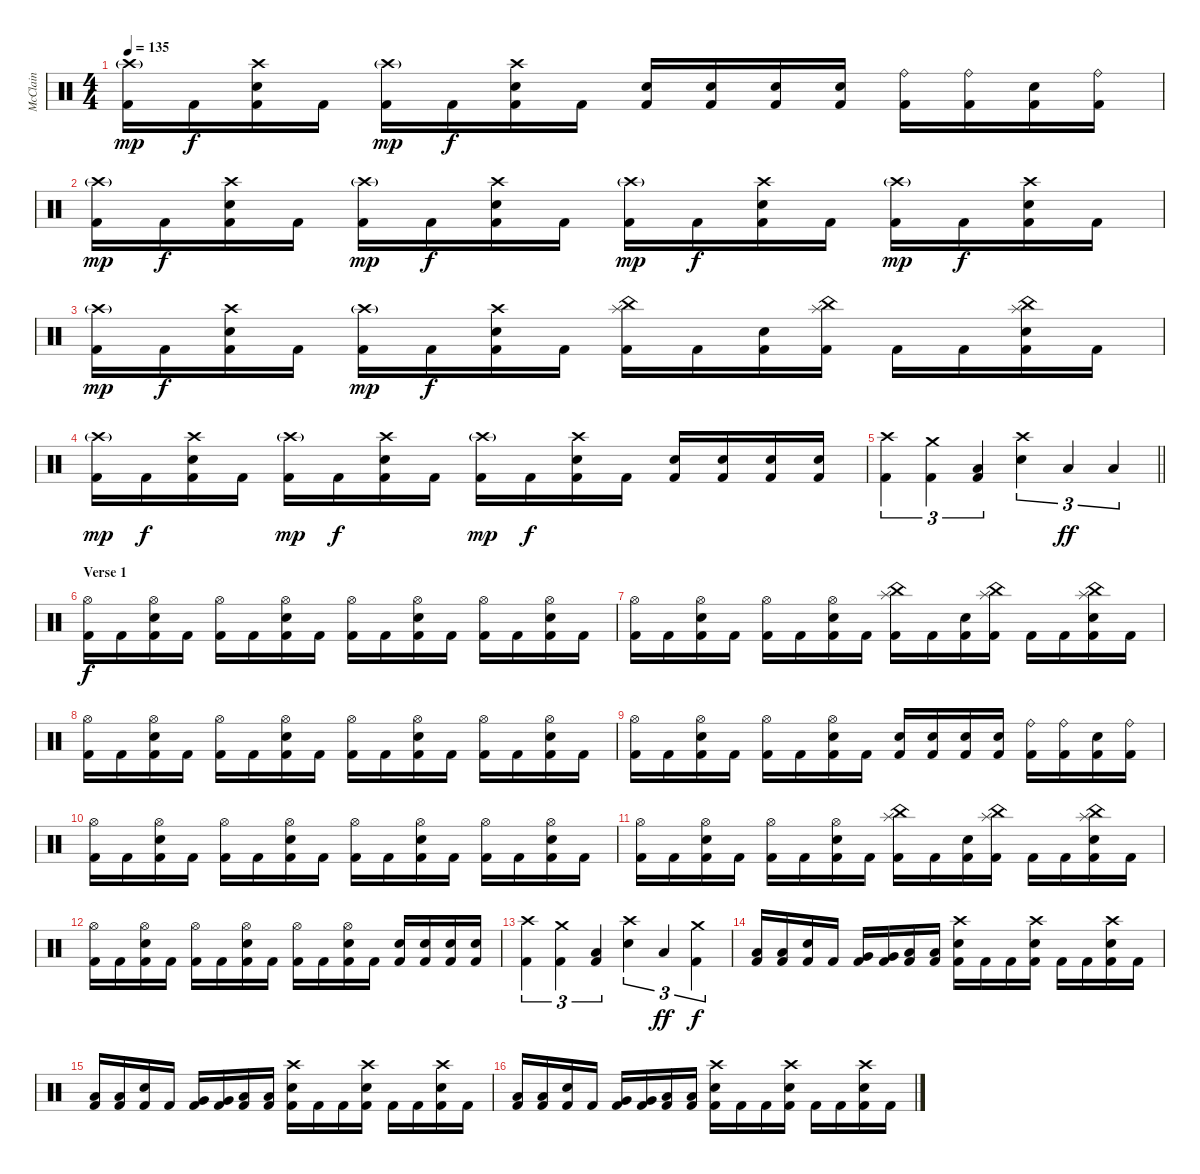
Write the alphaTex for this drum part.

\track ("McClain" "McClain") {instrument percussion}
\staff {score}
\articulation defaults
\ts (4 4)
\tempo 135
\clef neutral
\ks c
("Crash high (hit)"{g} "Kick (hit) 2").16{dy mp} "Kick (hit) 2".16{dy f} ("Crash high (hit)" "Electric Snare (hit)" "Kick (hit) 2").16 "Kick (hit) 2".16 ("Crash high (hit)"{g} "Kick (hit) 2").16{dy mp} "Kick (hit) 2".16{dy f} ("Crash high (hit)" "Electric Snare (hit)" "Kick (hit) 2").16 "Kick (hit) 2".16 ("Electric Snare (hit)" "Kick (hit) 2").16 ("Electric Snare (hit)" "Kick (hit) 2").16 ("Electric Snare (hit)" "Kick (hit) 2").16 ("Electric Snare (hit)" "Kick (hit) 2").16 ("Ride (bell)" "Kick (hit) 2").16 ("Ride (bell)" "Kick (hit) 2").16 ("Electric Snare (hit)" "Kick (hit) 2").16 ("Ride (bell)" "Kick (hit) 2").16 |
("Crash high (hit)"{g} "Kick (hit) 2").16{dy mp} "Kick (hit) 2".16{dy f} ("Crash high (hit)" "Electric Snare (hit)" "Kick (hit) 2").16 "Kick (hit) 2".16 ("Crash high (hit)"{g} "Kick (hit) 2").16{dy mp} "Kick (hit) 2".16{dy f} ("Crash high (hit)" "Electric Snare (hit)" "Kick (hit) 2").16 "Kick (hit) 2".16 ("Crash high (hit)"{g} "Kick (hit) 2").16{dy mp} "Kick (hit) 2".16{dy f} ("Crash high (hit)" "Electric Snare (hit)" "Kick (hit) 2").16 "Kick (hit) 2".16 ("Crash high (hit)"{g} "Kick (hit) 2").16{dy mp} "Kick (hit) 2".16{dy f} ("Crash high (hit)" "Electric Snare (hit)" "Kick (hit) 2").16 "Kick (hit) 2".16 |
("Crash high (hit)"{g} "Kick (hit) 2").16{dy mp} "Kick (hit) 2".16{dy f} ("Crash high (hit)" "Electric Snare (hit)" "Kick (hit) 2").16 "Kick (hit) 2".16 ("Crash high (hit)"{g} "Kick (hit) 2").16{dy mp} "Kick (hit) 2".16{dy f} ("Crash high (hit)" "Electric Snare (hit)" "Kick (hit) 2").16 "Kick (hit) 2".16 ("China (hit)" "Splash (hit)" "Kick (hit) 2").16 "Kick (hit) 2".16 ("Electric Snare (hit)" "Kick (hit) 2").16 ("China (hit)" "Splash (hit)" "Kick (hit) 2").16 "Kick (hit) 2".16 "Kick (hit) 2".16 ("China (hit)" "Splash (hit)" "Electric Snare (hit)" "Kick (hit) 2").16 "Kick (hit) 2".16 |
("Crash high (hit)"{g} "Kick (hit) 2").16{dy mp} "Kick (hit) 2".16{dy f} ("Crash high (hit)" "Electric Snare (hit)" "Kick (hit) 2").16 "Kick (hit) 2".16 ("Crash high (hit)"{g} "Kick (hit) 2").16{dy mp} "Kick (hit) 2".16{dy f} ("Crash high (hit)" "Electric Snare (hit)" "Kick (hit) 2").16 "Kick (hit) 2".16 ("Crash high (hit)"{g} "Kick (hit) 2").16{dy mp} "Kick (hit) 2".16{dy f} ("Crash high (hit)" "Electric Snare (hit)" "Kick (hit) 2").16 "Kick (hit) 2".16 ("Electric Snare (hit)" "Kick (hit) 2").16 ("Electric Snare (hit)" "Kick (hit) 2").16 ("Electric Snare (hit)" "Kick (hit) 2").16 ("Electric Snare (hit)" "Kick (hit) 2").16 |
\barLineRight lightlight
("Crash high (hit)" "Kick (hit) 2").4{tu (3 2)} ("Crash medium (hit)" "Kick (hit) 2").4{tu (3 2)} ("Low Floor Tom (hit)" "Kick (hit) 2").4{tu (3 2)} ("Crash high (hit)" "Electric Snare (hit)").4{tu (3 2)} "Low Tom (hit)".4{tu (3 2) dy ff} "Low Floor Tom (hit)".4{tu (3 2)} |
\section ("" "Verse 1 ")
("Hi-Hat (open)" "Kick (hit) 2").16{dy f} "Kick (hit) 2".16 ("Hi-Hat (open)" "Electric Snare (hit)" "Kick (hit) 2").16 "Kick (hit) 2".16 ("Hi-Hat (open)" "Kick (hit) 2").16 "Kick (hit) 2".16 ("Hi-Hat (open)" "Electric Snare (hit)" "Kick (hit) 2").16 "Kick (hit) 2".16 ("Hi-Hat (open)" "Kick (hit) 2").16 "Kick (hit) 2".16 ("Hi-Hat (open)" "Electric Snare (hit)" "Kick (hit) 2").16 "Kick (hit) 2".16 ("Hi-Hat (open)" "Kick (hit) 2").16 "Kick (hit) 2".16 ("Hi-Hat (open)" "Electric Snare (hit)" "Kick (hit) 2").16 "Kick (hit) 2".16 |
("Hi-Hat (open)" "Kick (hit) 2").16 "Kick (hit) 2".16 ("Hi-Hat (open)" "Electric Snare (hit)" "Kick (hit) 2").16 "Kick (hit) 2".16 ("Hi-Hat (open)" "Kick (hit) 2").16 "Kick (hit) 2".16 ("Hi-Hat (open)" "Electric Snare (hit)" "Kick (hit) 2").16 "Kick (hit) 2".16 ("China (hit)" "Splash (hit)" "Kick (hit) 2").16 "Kick (hit) 2".16 ("Electric Snare (hit)" "Kick (hit) 2").16 ("China (hit)" "Splash (hit)" "Kick (hit) 2").16 "Kick (hit) 2".16 "Kick (hit) 2".16 ("China (hit)" "Splash (hit)" "Electric Snare (hit)" "Kick (hit) 2").16 "Kick (hit) 2".16 |
("Hi-Hat (open)" "Kick (hit) 2").16 "Kick (hit) 2".16 ("Hi-Hat (open)" "Electric Snare (hit)" "Kick (hit) 2").16 "Kick (hit) 2".16 ("Hi-Hat (open)" "Kick (hit) 2").16 "Kick (hit) 2".16 ("Hi-Hat (open)" "Electric Snare (hit)" "Kick (hit) 2").16 "Kick (hit) 2".16 ("Hi-Hat (open)" "Kick (hit) 2").16 "Kick (hit) 2".16 ("Hi-Hat (open)" "Electric Snare (hit)" "Kick (hit) 2").16 "Kick (hit) 2".16 ("Hi-Hat (open)" "Kick (hit) 2").16 "Kick (hit) 2".16 ("Hi-Hat (open)" "Electric Snare (hit)" "Kick (hit) 2").16 "Kick (hit) 2".16 |
("Hi-Hat (open)" "Kick (hit) 2").16 "Kick (hit) 2".16 ("Hi-Hat (open)" "Electric Snare (hit)" "Kick (hit) 2").16 "Kick (hit) 2".16 ("Hi-Hat (open)" "Kick (hit) 2").16 "Kick (hit) 2".16 ("Hi-Hat (open)" "Electric Snare (hit)" "Kick (hit) 2").16 "Kick (hit) 2".16 ("Electric Snare (hit)" "Kick (hit) 2").16 ("Electric Snare (hit)" "Kick (hit) 2").16 ("Electric Snare (hit)" "Kick (hit) 2").16 ("Electric Snare (hit)" "Kick (hit) 2").16 ("Ride (bell)" "Kick (hit) 2").16 ("Ride (bell)" "Kick (hit) 2").16 ("Electric Snare (hit)" "Kick (hit) 2").16 ("Ride (bell)" "Kick (hit) 2").16 |
("Hi-Hat (open)" "Kick (hit) 2").16 "Kick (hit) 2".16 ("Hi-Hat (open)" "Electric Snare (hit)" "Kick (hit) 2").16 "Kick (hit) 2".16 ("Hi-Hat (open)" "Kick (hit) 2").16 "Kick (hit) 2".16 ("Hi-Hat (open)" "Electric Snare (hit)" "Kick (hit) 2").16 "Kick (hit) 2".16 ("Hi-Hat (open)" "Kick (hit) 2").16 "Kick (hit) 2".16 ("Hi-Hat (open)" "Electric Snare (hit)" "Kick (hit) 2").16 "Kick (hit) 2".16 ("Hi-Hat (open)" "Kick (hit) 2").16 "Kick (hit) 2".16 ("Hi-Hat (open)" "Electric Snare (hit)" "Kick (hit) 2").16 "Kick (hit) 2".16 |
("Hi-Hat (open)" "Kick (hit) 2").16 "Kick (hit) 2".16 ("Hi-Hat (open)" "Electric Snare (hit)" "Kick (hit) 2").16 "Kick (hit) 2".16 ("Hi-Hat (open)" "Kick (hit) 2").16 "Kick (hit) 2".16 ("Hi-Hat (open)" "Electric Snare (hit)" "Kick (hit) 2").16 "Kick (hit) 2".16 ("China (hit)" "Splash (hit)" "Kick (hit) 2").16 "Kick (hit) 2".16 ("Electric Snare (hit)" "Kick (hit) 2").16 ("China (hit)" "Splash (hit)" "Kick (hit) 2").16 "Kick (hit) 2".16 "Kick (hit) 2".16 ("China (hit)" "Splash (hit)" "Electric Snare (hit)" "Kick (hit) 2").16 "Kick (hit) 2".16 |
("Hi-Hat (open)" "Kick (hit) 2").16 "Kick (hit) 2".16 ("Hi-Hat (open)" "Electric Snare (hit)" "Kick (hit) 2").16 "Kick (hit) 2".16 ("Hi-Hat (open)" "Kick (hit) 2").16 "Kick (hit) 2".16 ("Hi-Hat (open)" "Electric Snare (hit)" "Kick (hit) 2").16 "Kick (hit) 2".16 ("Hi-Hat (open)" "Kick (hit) 2").16 "Kick (hit) 2".16 ("Hi-Hat (open)" "Electric Snare (hit)" "Kick (hit) 2").16 "Kick (hit) 2".16 ("Electric Snare (hit)" "Kick (hit) 2").16 ("Electric Snare (hit)" "Kick (hit) 2").16 ("Electric Snare (hit)" "Kick (hit) 2").16 ("Electric Snare (hit)" "Kick (hit) 2").16 |
("Crash high (hit)" "Kick (hit) 2").4{tu (3 2)} ("Crash medium (hit)" "Kick (hit) 2").4{tu (3 2)} ("Low Floor Tom (hit)" "Kick (hit) 2").4{tu (3 2)} ("Crash high (hit)" "Electric Snare (hit)").4{tu (3 2)} "Low Tom (hit)".4{tu (3 2) dy ff} ("Crash medium (hit)" "Kick (hit) 2").4{tu (3 2) dy f} |
("Low Tom (hit)" "Kick (hit) 2").16 ("Low Tom (hit)" "Kick (hit) 2").16 ("Electric Snare (hit)" "Kick (hit) 2").16 "Kick (hit) 2".16 ("Very Low Tom (hit)" "Kick (hit) 2").16 ("Very Low Tom (hit)" "Kick (hit) 2").16 ("Low Floor Tom (hit)" "Kick (hit) 2").16 ("Low Floor Tom (hit)" "Kick (hit) 2").16 ("Crash high (hit)" "Electric Snare (hit)" "Kick (hit) 2").16 "Kick (hit) 2".16 "Kick (hit) 2".16 ("Crash high (hit)" "Electric Snare (hit)" "Kick (hit) 2").16 "Kick (hit) 2".16 "Kick (hit) 2".16 ("Crash high (hit)" "Electric Snare (hit)" "Kick (hit) 2").16 "Kick (hit) 2".16 |
("Low Tom (hit)" "Kick (hit) 2").16 ("Low Tom (hit)" "Kick (hit) 2").16 ("Electric Snare (hit)" "Kick (hit) 2").16 "Kick (hit) 2".16 ("Very Low Tom (hit)" "Kick (hit) 2").16 ("Very Low Tom (hit)" "Kick (hit) 2").16 ("Low Floor Tom (hit)" "Kick (hit) 2").16 ("Low Floor Tom (hit)" "Kick (hit) 2").16 ("Crash high (hit)" "Electric Snare (hit)" "Kick (hit) 2").16 "Kick (hit) 2".16 "Kick (hit) 2".16 ("Crash high (hit)" "Electric Snare (hit)" "Kick (hit) 2").16 "Kick (hit) 2".16 "Kick (hit) 2".16 ("Crash high (hit)" "Electric Snare (hit)" "Kick (hit) 2").16 "Kick (hit) 2".16 |
("Low Tom (hit)" "Kick (hit) 2").16 ("Low Tom (hit)" "Kick (hit) 2").16 ("Electric Snare (hit)" "Kick (hit) 2").16 "Kick (hit) 2".16 ("Very Low Tom (hit)" "Kick (hit) 2").16 ("Very Low Tom (hit)" "Kick (hit) 2").16 ("Low Floor Tom (hit)" "Kick (hit) 2").16 ("Low Floor Tom (hit)" "Kick (hit) 2").16 ("Crash high (hit)" "Electric Snare (hit)" "Kick (hit) 2").16 "Kick (hit) 2".16 "Kick (hit) 2".16 ("Crash high (hit)" "Electric Snare (hit)" "Kick (hit) 2").16 "Kick (hit) 2".16 "Kick (hit) 2".16 ("Crash high (hit)" "Electric Snare (hit)" "Kick (hit) 2").16 "Kick (hit) 2".16
